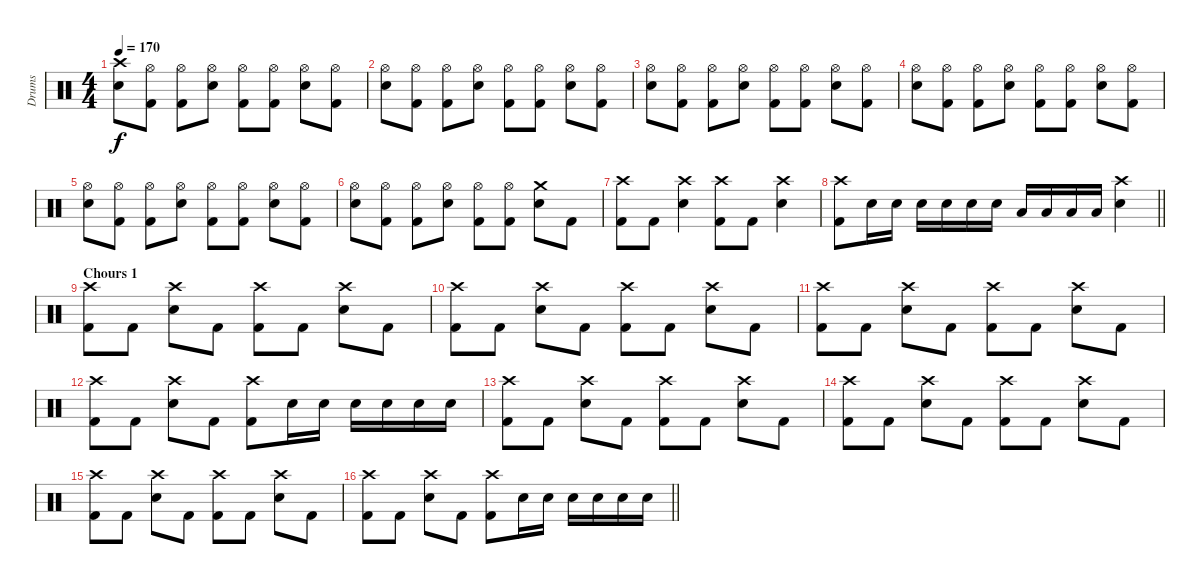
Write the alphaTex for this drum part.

\track ("Drums" "Drums") {instrument percussion}
\staff {score}
\articulation defaults
\ts (4 4)
\tempo 170
\clef neutral
\ks c
("Crash high (hit)" "Snare (hit) 2").8{dy f} ("Hi-Hat (open)" "Kick (hit) 2").8 ("Hi-Hat (open)" "Kick (hit) 2").8 ("Hi-Hat (open)" "Snare (hit) 2").8 ("Hi-Hat (open)" "Kick (hit) 2").8 ("Hi-Hat (open)" "Kick (hit) 2").8 ("Hi-Hat (open)" "Snare (hit) 2").8 ("Hi-Hat (open)" "Kick (hit) 2").8 |
("Hi-Hat (open)" "Snare (hit) 2").8 ("Hi-Hat (open)" "Kick (hit) 2").8 ("Hi-Hat (open)" "Kick (hit) 2").8 ("Hi-Hat (open)" "Snare (hit) 2").8 ("Hi-Hat (open)" "Kick (hit) 2").8 ("Hi-Hat (open)" "Kick (hit) 2").8 ("Hi-Hat (open)" "Snare (hit) 2").8 ("Hi-Hat (open)" "Kick (hit) 2").8 |
("Hi-Hat (open)" "Snare (hit) 2").8 ("Hi-Hat (open)" "Kick (hit) 2").8 ("Hi-Hat (open)" "Kick (hit) 2").8 ("Hi-Hat (open)" "Snare (hit) 2").8 ("Hi-Hat (open)" "Kick (hit) 2").8 ("Hi-Hat (open)" "Kick (hit) 2").8 ("Hi-Hat (open)" "Snare (hit) 2").8 ("Hi-Hat (open)" "Kick (hit) 2").8 |
("Hi-Hat (open)" "Snare (hit) 2").8 ("Hi-Hat (open)" "Kick (hit) 2").8 ("Hi-Hat (open)" "Kick (hit) 2").8 ("Hi-Hat (open)" "Snare (hit) 2").8 ("Hi-Hat (open)" "Kick (hit) 2").8 ("Hi-Hat (open)" "Kick (hit) 2").8 ("Hi-Hat (open)" "Snare (hit) 2").8 ("Hi-Hat (open)" "Kick (hit) 2").8 |
("Hi-Hat (open)" "Snare (hit) 2").8 ("Hi-Hat (open)" "Kick (hit) 2").8 ("Hi-Hat (open)" "Kick (hit) 2").8 ("Hi-Hat (open)" "Snare (hit) 2").8 ("Hi-Hat (open)" "Kick (hit) 2").8 ("Hi-Hat (open)" "Kick (hit) 2").8 ("Hi-Hat (open)" "Snare (hit) 2").8 ("Hi-Hat (open)" "Kick (hit) 2").8 |
("Hi-Hat (open)" "Snare (hit) 2").8 ("Hi-Hat (open)" "Kick (hit) 2").8 ("Hi-Hat (open)" "Kick (hit) 2").8 ("Hi-Hat (open)" "Snare (hit) 2").8 ("Hi-Hat (open)" "Kick (hit) 2").8 ("Hi-Hat (open)" "Kick (hit) 2").8 ("Crash medium (hit)" "Snare (hit) 2").8 "Kick (hit) 2".8 |
("Crash high (hit)" "Kick (hit) 2").8 "Kick (hit) 2".8 ("Crash high (hit)" "Snare (hit) 2").4 ("Crash high (hit)" "Kick (hit) 2").8 "Kick (hit) 2".8 ("Crash high (hit)" "Snare (hit) 2").4 |
\barLineRight lightlight
("Crash high (hit)" "Kick (hit) 2").8 "Snare (hit) 2".16 "Snare (hit) 2".16 "Snare (hit) 2".16 "Snare (hit) 2".16 "Snare (hit) 2".16 "Snare (hit) 2".16 "Low Tom (hit)".16 "Low Tom (hit)".16 "Low Tom (hit)".16 "Low Tom (hit)".16 ("Crash high (hit)" "Snare (hit) 2").4 |
\section ("" "Chours 1")
("Crash high (hit)" "Kick (hit) 2").8 "Kick (hit) 2".8 ("Crash high (hit)" "Snare (hit) 2").8 "Kick (hit) 2".8 ("Crash high (hit)" "Kick (hit) 2").8 "Kick (hit) 2".8 ("Crash high (hit)" "Snare (hit) 2").8 "Kick (hit) 2".8 |
("Crash high (hit)" "Kick (hit) 2").8 "Kick (hit) 2".8 ("Crash high (hit)" "Snare (hit) 2").8 "Kick (hit) 2".8 ("Crash high (hit)" "Kick (hit) 2").8 "Kick (hit) 2".8 ("Crash high (hit)" "Snare (hit) 2").8 "Kick (hit) 2".8 |
("Crash high (hit)" "Kick (hit) 2").8 "Kick (hit) 2".8 ("Crash high (hit)" "Snare (hit) 2").8 "Kick (hit) 2".8 ("Crash high (hit)" "Kick (hit) 2").8 "Kick (hit) 2".8 ("Crash high (hit)" "Snare (hit) 2").8 "Kick (hit) 2".8 |
("Crash high (hit)" "Kick (hit) 2").8 "Kick (hit) 2".8 ("Crash high (hit)" "Snare (hit) 2").8 "Kick (hit) 2".8 ("Crash high (hit)" "Kick (hit) 2").8 "Snare (hit) 2".16 "Snare (hit) 2".16 "Snare (hit) 2".16 "Snare (hit) 2".16 "Snare (hit) 2".16 "Snare (hit) 2".16 |
("Crash high (hit)" "Kick (hit) 2").8 "Kick (hit) 2".8 ("Crash high (hit)" "Snare (hit) 2").8 "Kick (hit) 2".8 ("Crash high (hit)" "Kick (hit) 2").8 "Kick (hit) 2".8 ("Crash high (hit)" "Snare (hit) 2").8 "Kick (hit) 2".8 |
("Crash high (hit)" "Kick (hit) 2").8 "Kick (hit) 2".8 ("Crash high (hit)" "Snare (hit) 2").8 "Kick (hit) 2".8 ("Crash high (hit)" "Kick (hit) 2").8 "Kick (hit) 2".8 ("Crash high (hit)" "Snare (hit) 2").8 "Kick (hit) 2".8 |
("Crash high (hit)" "Kick (hit) 2").8 "Kick (hit) 2".8 ("Crash high (hit)" "Snare (hit) 2").8 "Kick (hit) 2".8 ("Crash high (hit)" "Kick (hit) 2").8 "Kick (hit) 2".8 ("Crash high (hit)" "Snare (hit) 2").8 "Kick (hit) 2".8 |
\barLineRight lightlight
("Crash high (hit)" "Kick (hit) 2").8 "Kick (hit) 2".8 ("Crash high (hit)" "Snare (hit) 2").8 "Kick (hit) 2".8 ("Crash high (hit)" "Kick (hit) 2").8 "Snare (hit) 2".16 "Snare (hit) 2".16 "Snare (hit) 2".16 "Snare (hit) 2".16 "Snare (hit) 2".16 "Snare (hit) 2".16
